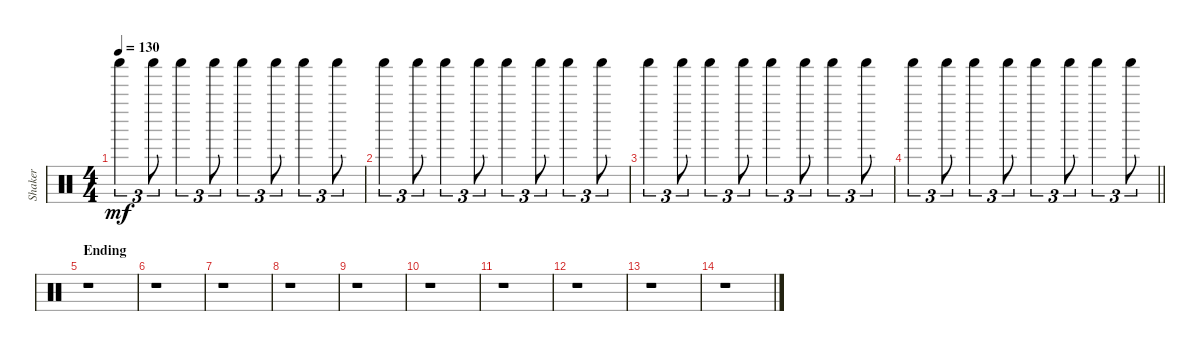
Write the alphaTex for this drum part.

\track ("Shaker" "Shaker") {instrument percussion}
\staff {score}
\articulation defaults
\ts (4 4)
\tempo 130
\clef neutral
\ks c "Shaker (hit)".4{tu (3 2) dy mf} "Shaker (hit)".8{tu (3 2)} "Shaker (hit)".4{tu (3 2)} "Shaker (hit)".8{tu (3 2)} "Shaker (hit)".4{tu (3 2)} "Shaker (hit)".8{tu (3 2)} "Shaker (hit)".4{tu (3 2)} "Shaker (hit)".8{tu (3 2)}
|
"Shaker (hit)".4{tu (3 2)} "Shaker (hit)".8{tu (3 2)} "Shaker (hit)".4{tu (3 2)} "Shaker (hit)".8{tu (3 2)} "Shaker (hit)".4{tu (3 2)} "Shaker (hit)".8{tu (3 2)} "Shaker (hit)".4{tu (3 2)} "Shaker (hit)".8{tu (3 2)} |
"Shaker (hit)".4{tu (3 2)} "Shaker (hit)".8{tu (3 2)} "Shaker (hit)".4{tu (3 2)} "Shaker (hit)".8{tu (3 2)} "Shaker (hit)".4{tu (3 2)} "Shaker (hit)".8{tu (3 2)} "Shaker (hit)".4{tu (3 2)} "Shaker (hit)".8{tu (3 2)} |
\barLineRight lightlight "Shaker (hit)".4{tu (3 2)} "Shaker (hit)".8{tu (3 2)} "Shaker (hit)".4{tu (3 2)} "Shaker (hit)".8{tu (3 2)} "Shaker (hit)".4{tu (3 2)} "Shaker (hit)".8{tu (3 2)} "Shaker (hit)".4{tu (3 2)} "Shaker (hit)".8{tu (3 2)}
|
\section ("" "Ending")
r.1 |
r.1 |
r.1 |
r.1 |
r.1 |
r.1 |
r.1 |
r.1 |
r.1 |
r.1
